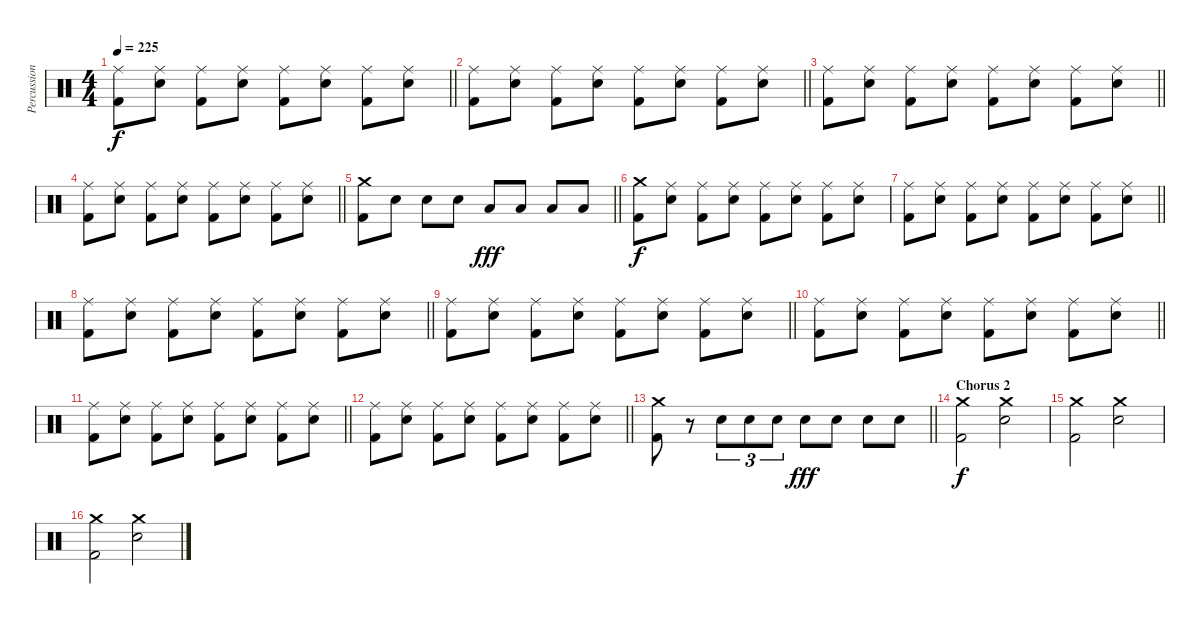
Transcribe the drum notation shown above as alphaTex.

\track ("Percussion" "Percussion") {instrument percussion}
\staff {score}
\articulation defaults
\ts (4 4)
\tempo 225
\clef neutral
\barLineRight lightlight
\ks c
("Ride (middle)" "Kick (hit) 2").8{dy f} ("Ride (middle)" "Electric Snare (hit)").8 ("Ride (middle)" "Kick (hit) 2").8 ("Ride (middle)" "Electric Snare (hit)").8 ("Ride (middle)" "Kick (hit) 2").8 ("Ride (middle)" "Electric Snare (hit)").8 ("Ride (middle)" "Kick (hit) 2").8 ("Ride (middle)" "Electric Snare (hit)").8 |
\barLineRight lightlight
("Ride (middle)" "Kick (hit) 2").8 ("Ride (middle)" "Electric Snare (hit)").8 ("Ride (middle)" "Kick (hit) 2").8 ("Ride (middle)" "Electric Snare (hit)").8 ("Ride (middle)" "Kick (hit) 2").8 ("Ride (middle)" "Electric Snare (hit)").8 ("Ride (middle)" "Kick (hit) 2").8 ("Ride (middle)" "Electric Snare (hit)").8 |
\barLineRight lightlight
("Ride (middle)" "Kick (hit) 2").8 ("Ride (middle)" "Electric Snare (hit)").8 ("Ride (middle)" "Kick (hit) 2").8 ("Ride (middle)" "Electric Snare (hit)").8 ("Ride (middle)" "Kick (hit) 2").8 ("Ride (middle)" "Electric Snare (hit)").8 ("Ride (middle)" "Kick (hit) 2").8 ("Ride (middle)" "Electric Snare (hit)").8 |
\barLineRight lightlight
("Ride (middle)" "Kick (hit) 2").8 ("Ride (middle)" "Electric Snare (hit)").8 ("Ride (middle)" "Kick (hit) 2").8 ("Ride (middle)" "Electric Snare (hit)").8 ("Ride (middle)" "Kick (hit) 2").8 ("Ride (middle)" "Electric Snare (hit)").8 ("Ride (middle)" "Kick (hit) 2").8 ("Ride (middle)" "Electric Snare (hit)").8 |
\barLineRight lightlight
("Crash medium (hit)" "Kick (hit) 2").8 "Electric Snare (hit)".8 "Electric Snare (hit)".8 "Electric Snare (hit)".8 "Low Tom (hit)".8{dy fff} "Low Tom (hit)".8 "Low Tom (hit)".8 "Low Tom (hit)".8 |
("Crash medium (hit)" "Kick (hit) 2").8{dy f} ("Ride (middle)" "Electric Snare (hit)").8 ("Ride (middle)" "Kick (hit) 2").8 ("Ride (middle)" "Electric Snare (hit)").8 ("Ride (middle)" "Kick (hit) 2").8 ("Ride (middle)" "Electric Snare (hit)").8 ("Ride (middle)" "Kick (hit) 2").8 ("Ride (middle)" "Electric Snare (hit)").8 |
\barLineRight lightlight
("Ride (middle)" "Kick (hit) 2").8 ("Ride (middle)" "Electric Snare (hit)").8 ("Ride (middle)" "Kick (hit) 2").8 ("Ride (middle)" "Electric Snare (hit)").8 ("Ride (middle)" "Kick (hit) 2").8 ("Ride (middle)" "Electric Snare (hit)").8 ("Ride (middle)" "Kick (hit) 2").8 ("Ride (middle)" "Electric Snare (hit)").8 |
\barLineRight lightlight
("Ride (middle)" "Kick (hit) 2").8 ("Ride (middle)" "Electric Snare (hit)").8 ("Ride (middle)" "Kick (hit) 2").8 ("Ride (middle)" "Electric Snare (hit)").8 ("Ride (middle)" "Kick (hit) 2").8 ("Ride (middle)" "Electric Snare (hit)").8 ("Ride (middle)" "Kick (hit) 2").8 ("Ride (middle)" "Electric Snare (hit)").8 |
\barLineRight lightlight
("Ride (middle)" "Kick (hit) 2").8 ("Ride (middle)" "Electric Snare (hit)").8 ("Ride (middle)" "Kick (hit) 2").8 ("Ride (middle)" "Electric Snare (hit)").8 ("Ride (middle)" "Kick (hit) 2").8 ("Ride (middle)" "Electric Snare (hit)").8 ("Ride (middle)" "Kick (hit) 2").8 ("Ride (middle)" "Electric Snare (hit)").8 |
\barLineRight lightlight
("Ride (middle)" "Kick (hit) 2").8 ("Ride (middle)" "Electric Snare (hit)").8 ("Ride (middle)" "Kick (hit) 2").8 ("Ride (middle)" "Electric Snare (hit)").8 ("Ride (middle)" "Kick (hit) 2").8 ("Ride (middle)" "Electric Snare (hit)").8 ("Ride (middle)" "Kick (hit) 2").8 ("Ride (middle)" "Electric Snare (hit)").8 |
\barLineRight lightlight
("Ride (middle)" "Kick (hit) 2").8 ("Ride (middle)" "Electric Snare (hit)").8 ("Ride (middle)" "Kick (hit) 2").8 ("Ride (middle)" "Electric Snare (hit)").8 ("Ride (middle)" "Kick (hit) 2").8 ("Ride (middle)" "Electric Snare (hit)").8 ("Ride (middle)" "Kick (hit) 2").8 ("Ride (middle)" "Electric Snare (hit)").8 |
\barLineRight lightlight
("Ride (middle)" "Kick (hit) 2").8 ("Ride (middle)" "Electric Snare (hit)").8 ("Ride (middle)" "Kick (hit) 2").8 ("Ride (middle)" "Electric Snare (hit)").8 ("Ride (middle)" "Kick (hit) 2").8 ("Ride (middle)" "Electric Snare (hit)").8 ("Ride (middle)" "Kick (hit) 2").8 ("Ride (middle)" "Electric Snare (hit)").8 |
\barLineRight lightlight
("Crash medium (hit)" "Kick (hit) 2").8 r.8 "Electric Snare (hit)".8{tu (3 2)} "Electric Snare (hit)".8{tu (3 2)} "Electric Snare (hit)".8{tu (3 2)} "Electric Snare (hit)".8{dy fff} "Electric Snare (hit)".8 "Electric Snare (hit)".8 "Electric Snare (hit)".8 |
\section ("" "Chorus 2")
("Crash medium (hit)" "Kick (hit) 2").2{dy f} ("Crash medium (hit)" "Electric Snare (hit)").2 |
("Crash medium (hit)" "Kick (hit) 2").2 ("Crash medium (hit)" "Electric Snare (hit)").2 |
("Crash medium (hit)" "Kick (hit) 2").2 ("Crash medium (hit)" "Electric Snare (hit)").2
